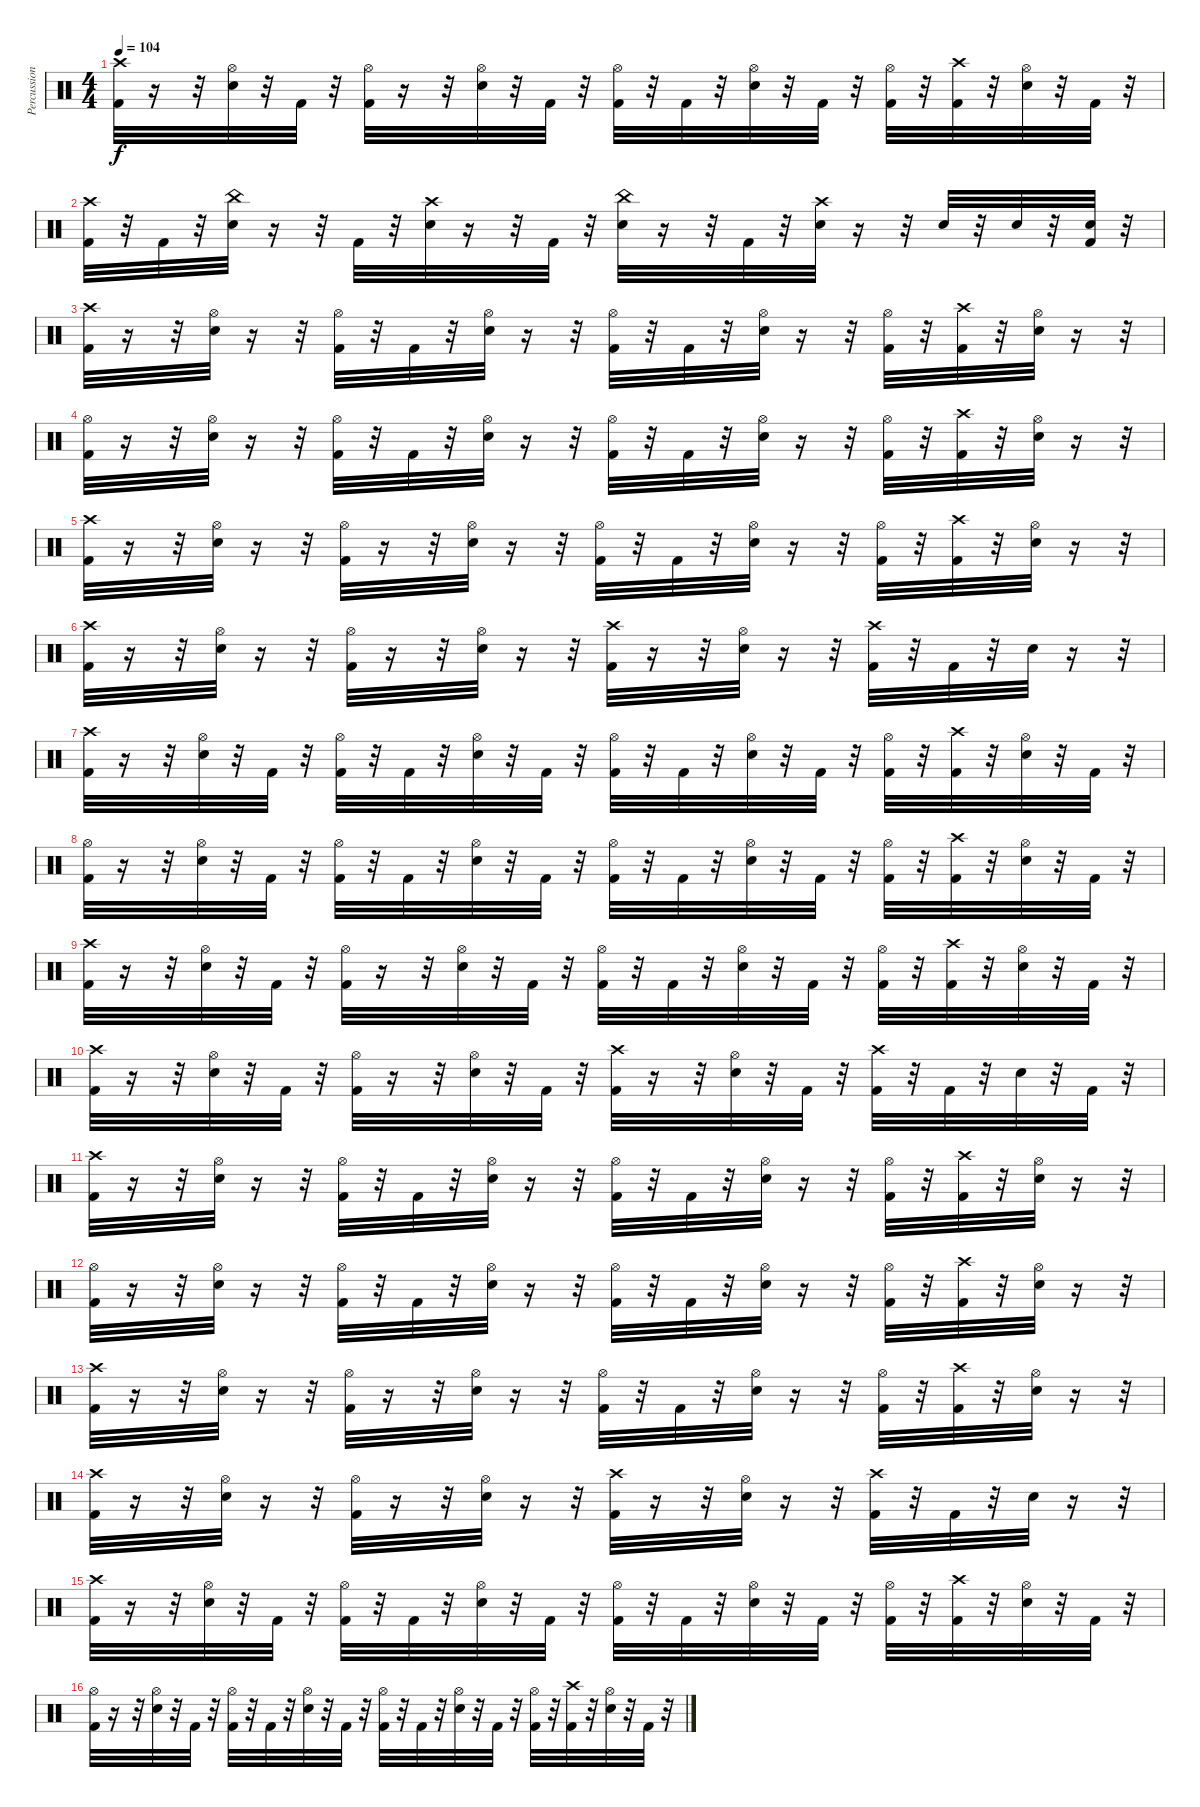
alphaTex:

\track ("Percussions" "Percussion") {instrument percussion}
\staff {score}
\articulation defaults
\ts (4 4)
\tempo 104
\clef neutral
\ks c
("Crash high (hit)" "Kick (hit) 2").32{dy f} r.16 r.32 ("Snare (hit) 2" "Hi-Hat (open)").32 r.32 "Kick (hit) 2".32 r.32 ("Hi-Hat (open)" "Kick (hit) 2").32 r.16 r.32 ("Hi-Hat (open)" "Snare (hit) 2").32 r.32 "Kick (hit) 2".32 r.32 ("Hi-Hat (open)" "Kick (hit) 2").32 r.32 "Kick (hit) 2".32 r.32 ("Snare (hit) 2" "Hi-Hat (open)").32 r.32 "Kick (hit) 2".32 r.32 ("Hi-Hat (open)" "Kick (hit) 2").32 r.32 ("Kick (hit) 2" "Crash high (hit)").32 r.32 ("Hi-Hat (open)" "Snare (hit) 2").32 r.32 "Kick (hit) 2".32 r.32 |
("Crash high (hit)" "Kick (hit) 2").32 r.32 "Kick (hit) 2".32 r.32 ("China (hit)" "Snare (hit) 2").32 r.16 r.32 "Kick (hit) 2".32 r.32 ("Snare (hit) 2" "Crash high (hit)").32 r.16 r.32 "Kick (hit) 2".32 r.32 ("Snare (hit) 2" "China (hit)").32 r.16 r.32 "Kick (hit) 2".32 r.32 ("Snare (hit) 2" "Crash high (hit)").32 r.16 r.32 "Snare (hit) 2".32 r.32 "Snare (hit) 2".32 r.32 ("Snare (hit) 2" "Kick (hit) 2").32 r.32 |
("Crash high (hit)" "Kick (hit) 2").32 r.16 r.32 ("Snare (hit) 2" "Hi-Hat (open)").32 r.16 r.32 ("Kick (hit) 2" "Hi-Hat (open)").32 r.32 "Kick (hit) 2".32 r.32 ("Hi-Hat (open)" "Snare (hit) 2").32 r.16 r.32 ("Kick (hit) 2" "Hi-Hat (open)").32 r.32 "Kick (hit) 2".32 r.32 ("Hi-Hat (open)" "Snare (hit) 2").32 r.16 r.32 ("Kick (hit) 2" "Hi-Hat (open)").32 r.32 ("Kick (hit) 2" "Crash high (hit)").32 r.32 ("Snare (hit) 2" "Hi-Hat (open)").32 r.16 r.32 |
("Hi-Hat (open)" "Kick (hit) 2").32 r.16 r.32 ("Hi-Hat (open)" "Snare (hit) 2").32 r.16 r.32 ("Hi-Hat (open)" "Kick (hit) 2").32 r.32 "Kick (hit) 2".32 r.32 ("Snare (hit) 2" "Hi-Hat (open)").32 r.16 r.32 ("Kick (hit) 2" "Hi-Hat (open)").32 r.32 "Kick (hit) 2".32 r.32 ("Snare (hit) 2" "Hi-Hat (open)").32 r.16 r.32 ("Kick (hit) 2" "Hi-Hat (open)").32 r.32 ("Crash high (hit)" "Kick (hit) 2").32 r.32 ("Snare (hit) 2" "Hi-Hat (open)").32 r.16 r.32 |
("Crash high (hit)" "Kick (hit) 2").32 r.16 r.32 ("Snare (hit) 2" "Hi-Hat (open)").32 r.16 r.32 ("Hi-Hat (open)" "Kick (hit) 2").32 r.16 r.32 ("Hi-Hat (open)" "Snare (hit) 2").32 r.16 r.32 ("Hi-Hat (open)" "Kick (hit) 2").32 r.32 "Kick (hit) 2".32 r.32 ("Snare (hit) 2" "Hi-Hat (open)").32 r.16 r.32 ("Hi-Hat (open)" "Kick (hit) 2").32 r.32 ("Kick (hit) 2" "Crash high (hit)").32 r.32 ("Hi-Hat (open)" "Snare (hit) 2").32 r.16 r.32 |
("Crash high (hit)" "Kick (hit) 2").32 r.16 r.32 ("Hi-Hat (open)" "Snare (hit) 2").32 r.16 r.32 ("Kick (hit) 2" "Hi-Hat (open)").32 r.16 r.32 ("Hi-Hat (open)" "Snare (hit) 2").32 r.16 r.32 ("Crash high (hit)" "Kick (hit) 2").32 r.16 r.32 ("Hi-Hat (open)" "Snare (hit) 2").32 r.16 r.32 ("Kick (hit) 2" "Crash high (hit)").32 r.32 "Kick (hit) 2".32 r.32 "Snare (hit) 2".32 r.16 r.32 |
("Crash high (hit)" "Kick (hit) 2").32 r.16 r.32 ("Snare (hit) 2" "Hi-Hat (open)").32 r.32 "Kick (hit) 2".32 r.32 ("Kick (hit) 2" "Hi-Hat (open)").32 r.32 "Kick (hit) 2".32 r.32 ("Hi-Hat (open)" "Snare (hit) 2").32 r.32 "Kick (hit) 2".32 r.32 ("Kick (hit) 2" "Hi-Hat (open)").32 r.32 "Kick (hit) 2".32 r.32 ("Hi-Hat (open)" "Snare (hit) 2").32 r.32 "Kick (hit) 2".32 r.32 ("Kick (hit) 2" "Hi-Hat (open)").32 r.32 ("Kick (hit) 2" "Crash high (hit)").32 r.32 ("Snare (hit) 2" "Hi-Hat (open)").32 r.32 "Kick (hit) 2".32 r.32 |
("Hi-Hat (open)" "Kick (hit) 2").32 r.16 r.32 ("Hi-Hat (open)" "Snare (hit) 2").32 r.32 "Kick (hit) 2".32 r.32 ("Hi-Hat (open)" "Kick (hit) 2").32 r.32 "Kick (hit) 2".32 r.32 ("Snare (hit) 2" "Hi-Hat (open)").32 r.32 "Kick (hit) 2".32 r.32 ("Kick (hit) 2" "Hi-Hat (open)").32 r.32 "Kick (hit) 2".32 r.32 ("Snare (hit) 2" "Hi-Hat (open)").32 r.32 "Kick (hit) 2".32 r.32 ("Kick (hit) 2" "Hi-Hat (open)").32 r.32 ("Crash high (hit)" "Kick (hit) 2").32 r.32 ("Snare (hit) 2" "Hi-Hat (open)").32 r.32 "Kick (hit) 2".32 r.32 |
("Crash high (hit)" "Kick (hit) 2").32 r.16 r.32 ("Snare (hit) 2" "Hi-Hat (open)").32 r.32 "Kick (hit) 2".32 r.32 ("Hi-Hat (open)" "Kick (hit) 2").32 r.16 r.32 ("Hi-Hat (open)" "Snare (hit) 2").32 r.32 "Kick (hit) 2".32 r.32 ("Hi-Hat (open)" "Kick (hit) 2").32 r.32 "Kick (hit) 2".32 r.32 ("Snare (hit) 2" "Hi-Hat (open)").32 r.32 "Kick (hit) 2".32 r.32 ("Hi-Hat (open)" "Kick (hit) 2").32 r.32 ("Kick (hit) 2" "Crash high (hit)").32 r.32 ("Hi-Hat (open)" "Snare (hit) 2").32 r.32 "Kick (hit) 2".32 r.32 |
("Crash high (hit)" "Kick (hit) 2").32 r.16 r.32 ("Hi-Hat (open)" "Snare (hit) 2").32 r.32 "Kick (hit) 2".32 r.32 ("Kick (hit) 2" "Hi-Hat (open)").32 r.16 r.32 ("Hi-Hat (open)" "Snare (hit) 2").32 r.32 "Kick (hit) 2".32 r.32 ("Crash high (hit)" "Kick (hit) 2").32 r.16 r.32 ("Hi-Hat (open)" "Snare (hit) 2").32 r.32 "Kick (hit) 2".32 r.32 ("Kick (hit) 2" "Crash high (hit)").32 r.32 "Kick (hit) 2".32 r.32 "Snare (hit) 2".32 r.32 "Kick (hit) 2".32 r.32 |
("Crash high (hit)" "Kick (hit) 2").32 r.16 r.32 ("Snare (hit) 2" "Hi-Hat (open)").32 r.16 r.32 ("Kick (hit) 2" "Hi-Hat (open)").32 r.32 "Kick (hit) 2".32 r.32 ("Hi-Hat (open)" "Snare (hit) 2").32 r.16 r.32 ("Kick (hit) 2" "Hi-Hat (open)").32 r.32 "Kick (hit) 2".32 r.32 ("Hi-Hat (open)" "Snare (hit) 2").32 r.16 r.32 ("Kick (hit) 2" "Hi-Hat (open)").32 r.32 ("Kick (hit) 2" "Crash high (hit)").32 r.32 ("Snare (hit) 2" "Hi-Hat (open)").32 r.16 r.32 |
("Hi-Hat (open)" "Kick (hit) 2").32 r.16 r.32 ("Hi-Hat (open)" "Snare (hit) 2").32 r.16 r.32 ("Hi-Hat (open)" "Kick (hit) 2").32 r.32 "Kick (hit) 2".32 r.32 ("Snare (hit) 2" "Hi-Hat (open)").32 r.16 r.32 ("Kick (hit) 2" "Hi-Hat (open)").32 r.32 "Kick (hit) 2".32 r.32 ("Snare (hit) 2" "Hi-Hat (open)").32 r.16 r.32 ("Kick (hit) 2" "Hi-Hat (open)").32 r.32 ("Crash high (hit)" "Kick (hit) 2").32 r.32 ("Snare (hit) 2" "Hi-Hat (open)").32 r.16 r.32 |
("Crash high (hit)" "Kick (hit) 2").32 r.16 r.32 ("Snare (hit) 2" "Hi-Hat (open)").32 r.16 r.32 ("Hi-Hat (open)" "Kick (hit) 2").32 r.16 r.32 ("Hi-Hat (open)" "Snare (hit) 2").32 r.16 r.32 ("Hi-Hat (open)" "Kick (hit) 2").32 r.32 "Kick (hit) 2".32 r.32 ("Snare (hit) 2" "Hi-Hat (open)").32 r.16 r.32 ("Hi-Hat (open)" "Kick (hit) 2").32 r.32 ("Kick (hit) 2" "Crash high (hit)").32 r.32 ("Hi-Hat (open)" "Snare (hit) 2").32 r.16 r.32 |
("Crash high (hit)" "Kick (hit) 2").32 r.16 r.32 ("Hi-Hat (open)" "Snare (hit) 2").32 r.16 r.32 ("Kick (hit) 2" "Hi-Hat (open)").32 r.16 r.32 ("Hi-Hat (open)" "Snare (hit) 2").32 r.16 r.32 ("Crash high (hit)" "Kick (hit) 2").32 r.16 r.32 ("Hi-Hat (open)" "Snare (hit) 2").32 r.16 r.32 ("Kick (hit) 2" "Crash high (hit)").32 r.32 "Kick (hit) 2".32 r.32 "Snare (hit) 2".32 r.16 r.32 |
("Crash high (hit)" "Kick (hit) 2").32 r.16 r.32 ("Snare (hit) 2" "Hi-Hat (open)").32 r.32 "Kick (hit) 2".32 r.32 ("Kick (hit) 2" "Hi-Hat (open)").32 r.32 "Kick (hit) 2".32 r.32 ("Hi-Hat (open)" "Snare (hit) 2").32 r.32 "Kick (hit) 2".32 r.32 ("Kick (hit) 2" "Hi-Hat (open)").32 r.32 "Kick (hit) 2".32 r.32 ("Hi-Hat (open)" "Snare (hit) 2").32 r.32 "Kick (hit) 2".32 r.32 ("Kick (hit) 2" "Hi-Hat (open)").32 r.32 ("Kick (hit) 2" "Crash high (hit)").32 r.32 ("Snare (hit) 2" "Hi-Hat (open)").32 r.32 "Kick (hit) 2".32 r.32 |
("Hi-Hat (open)" "Kick (hit) 2").32 r.16 r.32 ("Hi-Hat (open)" "Snare (hit) 2").32 r.32 "Kick (hit) 2".32 r.32 ("Hi-Hat (open)" "Kick (hit) 2").32 r.32 "Kick (hit) 2".32 r.32 ("Snare (hit) 2" "Hi-Hat (open)").32 r.32 "Kick (hit) 2".32 r.32 ("Kick (hit) 2" "Hi-Hat (open)").32 r.32 "Kick (hit) 2".32 r.32 ("Snare (hit) 2" "Hi-Hat (open)").32 r.32 "Kick (hit) 2".32 r.32 ("Kick (hit) 2" "Hi-Hat (open)").32 r.32 ("Crash high (hit)" "Kick (hit) 2").32 r.32 ("Snare (hit) 2" "Hi-Hat (open)").32 r.32 "Kick (hit) 2".32 r.32
